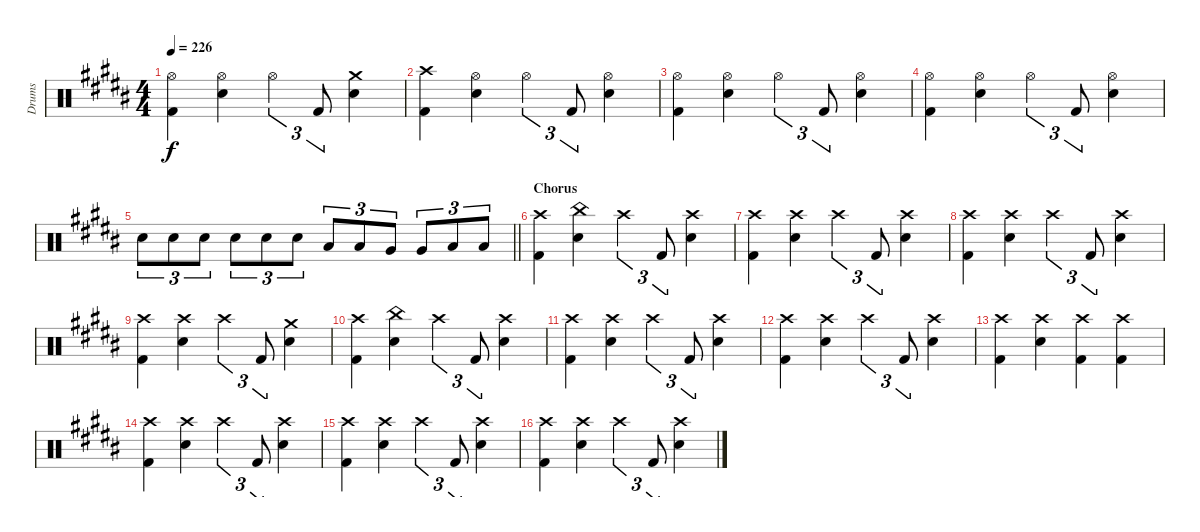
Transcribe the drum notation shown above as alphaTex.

\track ("Drums" "Drums") {instrument percussion}
\staff {score}
\articulation defaults
\ts (4 4)
\tempo 226
\clef neutral
\ks b
("Hi-Hat (open)" "Kick (hit) 2").4{dy f} ("Hi-Hat (open)" "Snare (hit) 2").4 "Hi-Hat (open)".4{tu (3 2)} "Kick (hit) 2".8{tu (3 2)} ("Crash medium (hit)" "Snare (hit) 2").4 |
("Crash high (hit)" "Kick (hit) 2").4 ("Hi-Hat (open)" "Snare (hit) 2").4 "Hi-Hat (open)".4{tu (3 2)} "Kick (hit) 2".8{tu (3 2)} ("Hi-Hat (open)" "Snare (hit) 2").4 |
("Hi-Hat (open)" "Kick (hit) 2").4 ("Hi-Hat (open)" "Snare (hit) 2").4 "Hi-Hat (open)".4{tu (3 2)} "Kick (hit) 2".8{tu (3 2)} ("Hi-Hat (open)" "Snare (hit) 2").4 |
("Hi-Hat (open)" "Kick (hit) 2").4 ("Hi-Hat (open)" "Snare (hit) 2").4 "Hi-Hat (open)".4{tu (3 2)} "Kick (hit) 2".8{tu (3 2)} ("Hi-Hat (open)" "Snare (hit) 2").4 |
\barLineRight lightlight "Snare (hit) 2".8{tu (3 2)} "Snare (hit) 2".8{tu (3 2)} "Snare (hit) 2".8{tu (3 2)} "Snare (hit) 2".8{tu (3 2)} "Snare (hit) 2".8{tu (3 2)} "Snare (hit) 2".8{tu (3 2)} "Low Tom (hit)".8{tu (3 2)} "Low Tom (hit)".8{tu (3 2)} "Very Low Tom (hit)".8{tu (3 2)} "Very Low Tom (hit)".8{tu (3 2)} "Low Floor Tom (hit)".8{tu (3 2)} "Low Floor Tom (hit)".8{tu (3 2)}
|
\section ("" "Chorus")
("Crash high (hit)" "Kick (hit) 2").4 ("China (hit)" "Snare (hit) 2").4 "Crash high (hit)".4{tu (3 2)} "Kick (hit) 2".8{tu (3 2)} ("Crash high (hit)" "Snare (hit) 2").4 |
("Crash high (hit)" "Kick (hit) 2").4 ("Crash high (hit)" "Snare (hit) 2").4 "Crash high (hit)".4{tu (3 2)} "Kick (hit) 2".8{tu (3 2)} ("Crash high (hit)" "Snare (hit) 2").4 |
("Crash high (hit)" "Kick (hit) 2").4 ("Crash high (hit)" "Snare (hit) 2").4 "Crash high (hit)".4{tu (3 2)} "Kick (hit) 2".8{tu (3 2)} ("Crash high (hit)" "Snare (hit) 2").4 |
("Crash high (hit)" "Kick (hit) 2").4 ("Crash high (hit)" "Snare (hit) 2").4 "Crash high (hit)".4{tu (3 2)} "Kick (hit) 2".8{tu (3 2)} ("Crash medium (hit)" "Snare (hit) 2").4 |
("Crash high (hit)" "Kick (hit) 2").4 ("China (hit)" "Snare (hit) 2").4 "Crash high (hit)".4{tu (3 2)} "Kick (hit) 2".8{tu (3 2)} ("Crash high (hit)" "Snare (hit) 2").4 |
("Crash high (hit)" "Kick (hit) 2").4 ("Crash high (hit)" "Snare (hit) 2").4 "Crash high (hit)".4{tu (3 2)} "Kick (hit) 2".8{tu (3 2)} ("Crash high (hit)" "Snare (hit) 2").4 |
("Crash high (hit)" "Kick (hit) 2").4 ("Crash high (hit)" "Snare (hit) 2").4 "Crash high (hit)".4{tu (3 2)} "Kick (hit) 2".8{tu (3 2)} ("Crash high (hit)" "Snare (hit) 2").4 |
("Crash high (hit)" "Kick (hit) 2").4 ("Crash high (hit)" "Snare (hit) 2").4 ("Crash high (hit)" "Kick (hit) 2").4 ("Crash high (hit)" "Kick (hit) 2").4 |
("Crash high (hit)" "Kick (hit) 2").4 ("Crash high (hit)" "Snare (hit) 2").4 "Crash high (hit)".4{tu (3 2)} "Kick (hit) 2".8{tu (3 2)} ("Crash high (hit)" "Snare (hit) 2").4 |
("Crash high (hit)" "Kick (hit) 2").4 ("Crash high (hit)" "Snare (hit) 2").4 "Crash high (hit)".4{tu (3 2)} "Kick (hit) 2".8{tu (3 2)} ("Crash high (hit)" "Snare (hit) 2").4 |
("Crash high (hit)" "Kick (hit) 2").4 ("Crash high (hit)" "Snare (hit) 2").4 "Crash high (hit)".4{tu (3 2)} "Kick (hit) 2".8{tu (3 2)} ("Crash high (hit)" "Snare (hit) 2").4
